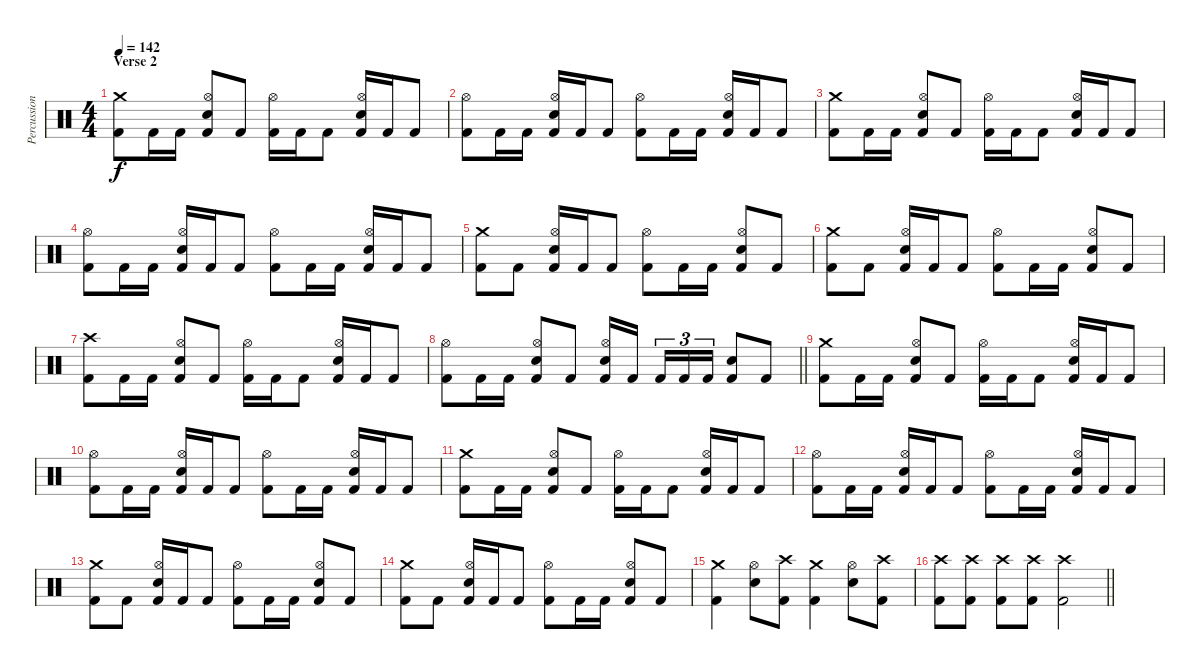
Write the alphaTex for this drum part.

\track ("Percussion" "Percussion") {instrument percussion}
\staff {score}
\articulation defaults
\ts (4 4)
\section ("" "Verse 2")
\tempo 142
\clef neutral
\ks c
("Crash medium (hit)" "Kick (hit) 2").8{dy f} "Kick (hit) 2".16 "Kick (hit) 2".16 ("Hi-Hat (open)" "Snare (hit) 2" "Kick (hit) 2").8 "Kick (hit) 2".8 ("Hi-Hat (open)" "Kick (hit) 2").16 "Kick (hit) 2".16 "Kick (hit) 2".8 ("Hi-Hat (open)" "Snare (hit) 2" "Kick (hit) 2").16 "Kick (hit) 2".16 "Kick (hit) 2".8 |
("Hi-Hat (open)" "Kick (hit) 2").8 "Kick (hit) 2".16 "Kick (hit) 2".16 ("Hi-Hat (open)" "Snare (hit) 2" "Kick (hit) 2").16 "Kick (hit) 2".16 "Kick (hit) 2".8 ("Hi-Hat (open)" "Kick (hit) 2").8 "Kick (hit) 2".16 "Kick (hit) 2".16 ("Hi-Hat (open)" "Snare (hit) 2" "Kick (hit) 2").16 "Kick (hit) 2".16 "Kick (hit) 2".8 |
("Crash medium (hit)" "Kick (hit) 2").8 "Kick (hit) 2".16 "Kick (hit) 2".16 ("Hi-Hat (open)" "Snare (hit) 2" "Kick (hit) 2").8 "Kick (hit) 2".8 ("Hi-Hat (open)" "Kick (hit) 2").16 "Kick (hit) 2".16 "Kick (hit) 2".8 ("Hi-Hat (open)" "Snare (hit) 2" "Kick (hit) 2").16 "Kick (hit) 2".16 "Kick (hit) 2".8 |
("Hi-Hat (open)" "Kick (hit) 2").8 "Kick (hit) 2".16 "Kick (hit) 2".16 ("Hi-Hat (open)" "Snare (hit) 2" "Kick (hit) 2").16 "Kick (hit) 2".16 "Kick (hit) 2".8 ("Hi-Hat (open)" "Kick (hit) 2").8 "Kick (hit) 2".16 "Kick (hit) 2".16 ("Hi-Hat (open)" "Snare (hit) 2" "Kick (hit) 2").16 "Kick (hit) 2".16 "Kick (hit) 2".8 |
("Crash medium (hit)" "Kick (hit) 2").8 "Kick (hit) 2".8 ("Hi-Hat (open)" "Snare (hit) 2" "Kick (hit) 2").16 "Kick (hit) 2".16 "Kick (hit) 2".8 ("Hi-Hat (open)" "Kick (hit) 2").8 "Kick (hit) 2".16 "Kick (hit) 2".16 ("Hi-Hat (open)" "Snare (hit) 2" "Kick (hit) 2").8 "Kick (hit) 2".8 |
("Crash medium (hit)" "Kick (hit) 2").8 "Kick (hit) 2".8 ("Hi-Hat (open)" "Snare (hit) 2" "Kick (hit) 2").16 "Kick (hit) 2".16 "Kick (hit) 2".8 ("Hi-Hat (open)" "Kick (hit) 2").8 "Kick (hit) 2".16 "Kick (hit) 2".16 ("Hi-Hat (open)" "Snare (hit) 2" "Kick (hit) 2").8 "Kick (hit) 2".8 |
("Crash high (hit)" "Kick (hit) 2").8 "Kick (hit) 2".16 "Kick (hit) 2".16 ("Hi-Hat (open)" "Snare (hit) 2" "Kick (hit) 2").8 "Kick (hit) 2".8 ("Hi-Hat (open)" "Kick (hit) 2").16 "Kick (hit) 2".16 "Kick (hit) 2".8 ("Hi-Hat (open)" "Snare (hit) 2" "Kick (hit) 2").16 "Kick (hit) 2".16 "Kick (hit) 2".8 |
\barLineRight lightlight
("Hi-Hat (open)" "Kick (hit) 2").8 "Kick (hit) 2".16 "Kick (hit) 2".16 ("Hi-Hat (open)" "Snare (hit) 2" "Kick (hit) 2").8 "Kick (hit) 2".8 ("Hi-Hat (open)" "Snare (hit) 2" "Kick (hit) 2").16 "Kick (hit) 2".16{beam splitsecondary} "Kick (hit) 2".16{tu (3 2)} "Kick (hit) 2".16{tu (3 2)} "Kick (hit) 2".16{tu (3 2)} ("Snare (hit) 2" "Kick (hit) 2").8 "Kick (hit) 2".8 |
("Crash medium (hit)" "Kick (hit) 2").8 "Kick (hit) 2".16 "Kick (hit) 2".16 ("Hi-Hat (open)" "Snare (hit) 2" "Kick (hit) 2").8 "Kick (hit) 2".8 ("Hi-Hat (open)" "Kick (hit) 2").16 "Kick (hit) 2".16 "Kick (hit) 2".8 ("Hi-Hat (open)" "Snare (hit) 2" "Kick (hit) 2").16 "Kick (hit) 2".16 "Kick (hit) 2".8 |
("Hi-Hat (open)" "Kick (hit) 2").8 "Kick (hit) 2".16 "Kick (hit) 2".16 ("Hi-Hat (open)" "Snare (hit) 2" "Kick (hit) 2").16 "Kick (hit) 2".16 "Kick (hit) 2".8 ("Hi-Hat (open)" "Kick (hit) 2").8 "Kick (hit) 2".16 "Kick (hit) 2".16 ("Hi-Hat (open)" "Snare (hit) 2" "Kick (hit) 2").16 "Kick (hit) 2".16 "Kick (hit) 2".8 |
("Crash medium (hit)" "Kick (hit) 2").8 "Kick (hit) 2".16 "Kick (hit) 2".16 ("Hi-Hat (open)" "Snare (hit) 2" "Kick (hit) 2").8 "Kick (hit) 2".8 ("Hi-Hat (open)" "Kick (hit) 2").16 "Kick (hit) 2".16 "Kick (hit) 2".8 ("Hi-Hat (open)" "Snare (hit) 2" "Kick (hit) 2").16 "Kick (hit) 2".16 "Kick (hit) 2".8 |
("Hi-Hat (open)" "Kick (hit) 2").8 "Kick (hit) 2".16 "Kick (hit) 2".16 ("Hi-Hat (open)" "Snare (hit) 2" "Kick (hit) 2").16 "Kick (hit) 2".16 "Kick (hit) 2".8 ("Hi-Hat (open)" "Kick (hit) 2").8 "Kick (hit) 2".16 "Kick (hit) 2".16 ("Hi-Hat (open)" "Snare (hit) 2" "Kick (hit) 2").16 "Kick (hit) 2".16 "Kick (hit) 2".8 |
("Crash medium (hit)" "Kick (hit) 2").8 "Kick (hit) 2".8 ("Hi-Hat (open)" "Snare (hit) 2" "Kick (hit) 2").16 "Kick (hit) 2".16 "Kick (hit) 2".8 ("Hi-Hat (open)" "Kick (hit) 2").8 "Kick (hit) 2".16 "Kick (hit) 2".16 ("Hi-Hat (open)" "Snare (hit) 2" "Kick (hit) 2").8 "Kick (hit) 2".8 |
("Crash medium (hit)" "Kick (hit) 2").8 "Kick (hit) 2".8 ("Hi-Hat (open)" "Snare (hit) 2" "Kick (hit) 2").16 "Kick (hit) 2".16 "Kick (hit) 2".8 ("Hi-Hat (open)" "Kick (hit) 2").8 "Kick (hit) 2".16 "Kick (hit) 2".16 ("Hi-Hat (open)" "Snare (hit) 2" "Kick (hit) 2").8 "Kick (hit) 2".8 |
("Crash medium (hit)" "Kick (hit) 2").4 ("Hi-Hat (open)" "Snare (hit) 2").8 ("Crash high (hit)" "Kick (hit) 2").8 ("Crash medium (hit)" "Kick (hit) 2").4 ("Hi-Hat (open)" "Snare (hit) 2").8 ("Crash high (hit)" "Kick (hit) 2").8 |
\barLineRight lightlight
("Crash high (hit)" "Kick (hit) 2").8 ("Crash high (hit)" "Kick (hit) 2").8 ("Crash high (hit)" "Kick (hit) 2").8 ("Crash high (hit)" "Kick (hit) 2").8 ("Crash high (hit)" "Kick (hit) 2").2
